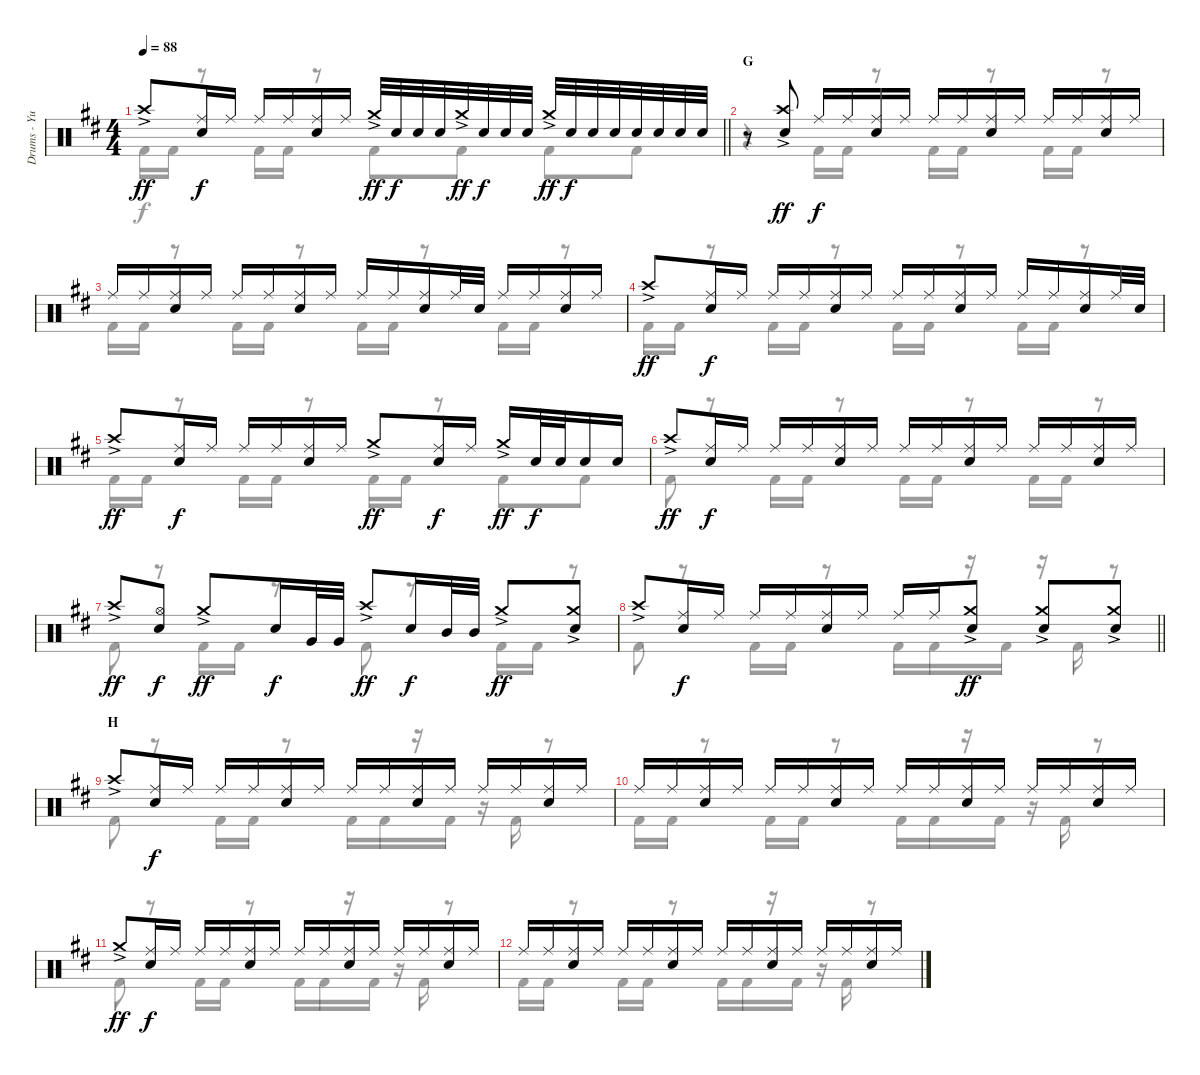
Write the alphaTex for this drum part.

\track ("Drums - Yuuya" "Drums - Yu") {instrument percussion}
\staff {score}
\articulation defaults
\voice
\ts (4 4)
\tempo 88
\clef neutral
\barLineRight lightlight
\ks d "Crash high (hit)"{ac}.8{dy ff}
("Ride (middle)" "Snare (hit) 2").16{dy f} "Ride (middle)".16 "Ride (middle)".16 "Ride (middle)".16 ("Ride (middle)" "Snare (hit) 2").16 "Ride (middle)".16 "Crash medium (hit)"{ac}.32{dy ff} "Snare (hit) 2".32{dy f} "Snare (hit) 2".32 "Snare (hit) 2".32 "Crash medium (hit)"{ac}.32{dy ff} "Snare (hit) 2".32{dy f} "Snare (hit) 2".32 "Snare (hit) 2".32 "Crash medium (hit)"{ac}.32{dy ff} "Snare (hit) 2".32{dy f} "Snare (hit) 2".32 "Snare (hit) 2".32 "Snare (hit) 2".32 "Snare (hit) 2".32 "Snare (hit) 2".32 "Snare (hit) 2".32 |
\section ("" "G")
r.8 ("Crash high (hit)"{ac} "Snare (hit) 2").8{dy ff} "Ride (middle)".16{dy f} "Ride (middle)".16 ("Ride (middle)" "Snare (hit) 2").16 "Ride (middle)".16 "Ride (middle)".16 "Ride (middle)".16 ("Ride (middle)" "Snare (hit) 2").16 "Ride (middle)".16 "Ride (middle)".16 "Ride (middle)".16 ("Ride (middle)" "Snare (hit) 2").16 "Ride (middle)".16 |
"Ride (middle)".16 "Ride (middle)".16 ("Ride (middle)" "Snare (hit) 2").16 "Ride (middle)".16 "Ride (middle)".16 "Ride (middle)".16 ("Ride (middle)" "Snare (hit) 2").16 "Ride (middle)".16 "Ride (middle)".16 "Ride (middle)".16 ("Ride (middle)" "Snare (hit) 2").16 "Ride (middle)".32 "Snare (hit) 2".32 "Ride (middle)".16 "Ride (middle)".16 ("Ride (middle)" "Snare (hit) 2").16 "Ride (middle)".16 |
"Crash high (hit)"{ac}.8{dy ff} ("Ride (middle)" "Snare (hit) 2").16{dy f} "Ride (middle)".16 "Ride (middle)".16 "Ride (middle)".16 ("Ride (middle)" "Snare (hit) 2").16 "Ride (middle)".16 "Ride (middle)".16 "Ride (middle)".16 ("Ride (middle)" "Snare (hit) 2").16 "Ride (middle)".16 "Ride (middle)".16 "Ride (middle)".16 ("Ride (middle)" "Snare (hit) 2").16 "Ride (middle)".32 "Snare (hit) 2".32 |
"Crash high (hit)"{ac}.8{dy ff} ("Ride (middle)" "Snare (hit) 2").16{dy f} "Ride (middle)".16 "Ride (middle)".16 "Ride (middle)".16 ("Ride (middle)" "Snare (hit) 2").16 "Ride (middle)".16 "Crash medium (hit)"{ac}.8{dy ff} ("Ride (middle)" "Snare (hit) 2").16{dy f} "Ride (middle)".16 "Crash medium (hit)"{ac}.16{dy ff} "Snare (hit) 2".32{dy f} "Snare (hit) 2".32 "Snare (hit) 2".16 "Snare (hit) 2".16 |
"Crash high (hit)"{ac}.8{dy ff} ("Ride (middle)" "Snare (hit) 2").16{dy f} "Ride (middle)".16 "Ride (middle)".16 "Ride (middle)".16 ("Ride (middle)" "Snare (hit) 2").16 "Ride (middle)".16 "Ride (middle)".16 "Ride (middle)".16 ("Ride (middle)" "Snare (hit) 2").16 "Ride (middle)".16 "Ride (middle)".16 "Ride (middle)".16 ("Ride (middle)" "Snare (hit) 2").16 "Ride (middle)".16 |
"Crash high (hit)"{ac}.8{dy ff} ("Hi-Hat (open)" "Snare (hit) 2").8{dy f} "Crash medium (hit)"{ac}.8{dy ff} "Snare (hit) 2".16{dy f} "Very Low Tom (hit)".32 "Very Low Tom (hit)".32 "Crash high (hit)"{ac}.8{dy ff} "Snare (hit) 2".16{dy f} "Mid Tom (hit)".32 "Mid Tom (hit)".32 "Crash medium (hit)"{ac}.8{dy ff} ("Crash medium (hit)"{ac} "Snare (hit) 2").8 |
\barLineRight lightlight "Crash high (hit)"{ac}.8
("Ride (middle)" "Snare (hit) 2").16{dy f} "Ride (middle)".16 "Ride (middle)".16 "Ride (middle)".16 ("Ride (middle)" "Snare (hit) 2").16 "Ride (middle)".16 "Ride (middle)".16 "Ride (middle)".16 ("Crash medium (hit)"{ac} "Snare (hit) 2").8{dy ff} ("Crash medium (hit)"{ac} "Snare (hit) 2").8 ("Crash medium (hit)"{ac} "Snare (hit) 2").8 |
\section ("" "H")
"Crash high (hit)"{ac}.8 ("Ride (middle)" "Snare (hit) 2").16{dy f} "Ride (middle)".16 "Ride (middle)".16 "Ride (middle)".16 ("Ride (middle)" "Snare (hit) 2").16 "Ride (middle)".16 "Ride (middle)".16 "Ride (middle)".16 ("Ride (middle)" "Snare (hit) 2").16 "Ride (middle)".16 "Ride (middle)".16 "Ride (middle)".16 ("Ride (middle)" "Snare (hit) 2").16 "Ride (middle)".16 |
"Ride (middle)".16 "Ride (middle)".16 ("Ride (middle)" "Snare (hit) 2").16 "Ride (middle)".16 "Ride (middle)".16 "Ride (middle)".16 ("Ride (middle)" "Snare (hit) 2").16 "Ride (middle)".16 "Ride (middle)".16 "Ride (middle)".16 ("Ride (middle)" "Snare (hit) 2").16 "Ride (middle)".16 "Ride (middle)".16 "Ride (middle)".16 ("Ride (middle)" "Snare (hit) 2").16 "Ride (middle)".16 |
"Crash medium (hit)"{ac}.8{dy ff} ("Ride (middle)" "Snare (hit) 2").16{dy f} "Ride (middle)".16 "Ride (middle)".16 "Ride (middle)".16 ("Ride (middle)" "Snare (hit) 2").16 "Ride (middle)".16 "Ride (middle)".16 "Ride (middle)".16 ("Ride (middle)" "Snare (hit) 2").16 "Ride (middle)".16 "Ride (middle)".16 "Ride (middle)".16 ("Ride (middle)" "Snare (hit) 2").16 "Ride (middle)".16 |
"Ride (middle)".16 "Ride (middle)".16 ("Ride (middle)" "Snare (hit) 2").16 "Ride (middle)".16 "Ride (middle)".16 "Ride (middle)".16 ("Ride (middle)" "Snare (hit) 2").16 "Ride (middle)".16 "Ride (middle)".16 "Ride (middle)".16 ("Ride (middle)" "Snare (hit) 2").16 "Ride (middle)".16 "Ride (middle)".16 "Ride (middle)".16 ("Ride (middle)" "Snare (hit) 2").16 "Ride (middle)".16
\voice
\clef neutral
\ottava regular
\simile none
\barLineRight lightlight
\ks d "Kick (hit) 2".16{dy f} "Kick (hit) 2".16
r.8 "Kick (hit) 2".16 "Kick (hit) 2".16 r.8 "Kick (hit) 2".8 "Kick (hit) 2".8 "Kick (hit) 2".8 "Kick (hit) 2".8 |
r.4 "Kick (hit) 2".16 "Kick (hit) 2".16 r.8 "Kick (hit) 2".16 "Kick (hit) 2".16 r.8 "Kick (hit) 2".16 "Kick (hit) 2".16 r.8 |
"Kick (hit) 2".16 "Kick (hit) 2".16 r.8 "Kick (hit) 2".16 "Kick (hit) 2".16 r.8 "Kick (hit) 2".16 "Kick (hit) 2".16 r.8 "Kick (hit) 2".16 "Kick (hit) 2".16 r.8 |
"Kick (hit) 2".16 "Kick (hit) 2".16 r.8 "Kick (hit) 2".16 "Kick (hit) 2".16 r.8 "Kick (hit) 2".16 "Kick (hit) 2".16 r.8 "Kick (hit) 2".16 "Kick (hit) 2".16 r.8 |
"Kick (hit) 2".16 "Kick (hit) 2".16 r.8 "Kick (hit) 2".16 "Kick (hit) 2".16 r.8 "Kick (hit) 2".16 "Kick (hit) 2".16 r.8 "Kick (hit) 2".8 "Kick (hit) 2".8 |
"Kick (hit) 2".8 r.8 "Kick (hit) 2".16 "Kick (hit) 2".16 r.8 "Kick (hit) 2".16 "Kick (hit) 2".16 r.8 "Kick (hit) 2".16 "Kick (hit) 2".16 r.8 |
"Kick (hit) 2".8 r.8 "Kick (hit) 2".16 "Kick (hit) 2".16 r.8 "Kick (hit) 2".8 r.8 "Kick (hit) 2".16 "Kick (hit) 2".16 r.8 |
\barLineRight lightlight "Kick (hit) 2".8
r.8 "Kick (hit) 2".16 "Kick (hit) 2".16 r.8 "Kick (hit) 2".16 "Kick (hit) 2".16 r.16 "Kick (hit) 2".16 r.16 "Kick (hit) 2".16 r.8 |
"Kick (hit) 2".8 r.8 "Kick (hit) 2".16 "Kick (hit) 2".16 r.8 "Kick (hit) 2".16 "Kick (hit) 2".16 r.16 "Kick (hit) 2".16 r.16 "Kick (hit) 2".16 r.8 |
"Kick (hit) 2".16 "Kick (hit) 2".16 r.8 "Kick (hit) 2".16 "Kick (hit) 2".16 r.8 "Kick (hit) 2".16 "Kick (hit) 2".16 r.16 "Kick (hit) 2".16 r.16 "Kick (hit) 2".16 r.8 |
"Kick (hit) 2".8 r.8 "Kick (hit) 2".16 "Kick (hit) 2".16 r.8 "Kick (hit) 2".16 "Kick (hit) 2".16 r.16 "Kick (hit) 2".16 r.16 "Kick (hit) 2".16 r.8 |
"Kick (hit) 2".16 "Kick (hit) 2".16 r.8 "Kick (hit) 2".16 "Kick (hit) 2".16 r.8 "Kick (hit) 2".16 "Kick (hit) 2".16 r.16 "Kick (hit) 2".16 r.16 "Kick (hit) 2".16 r.8
